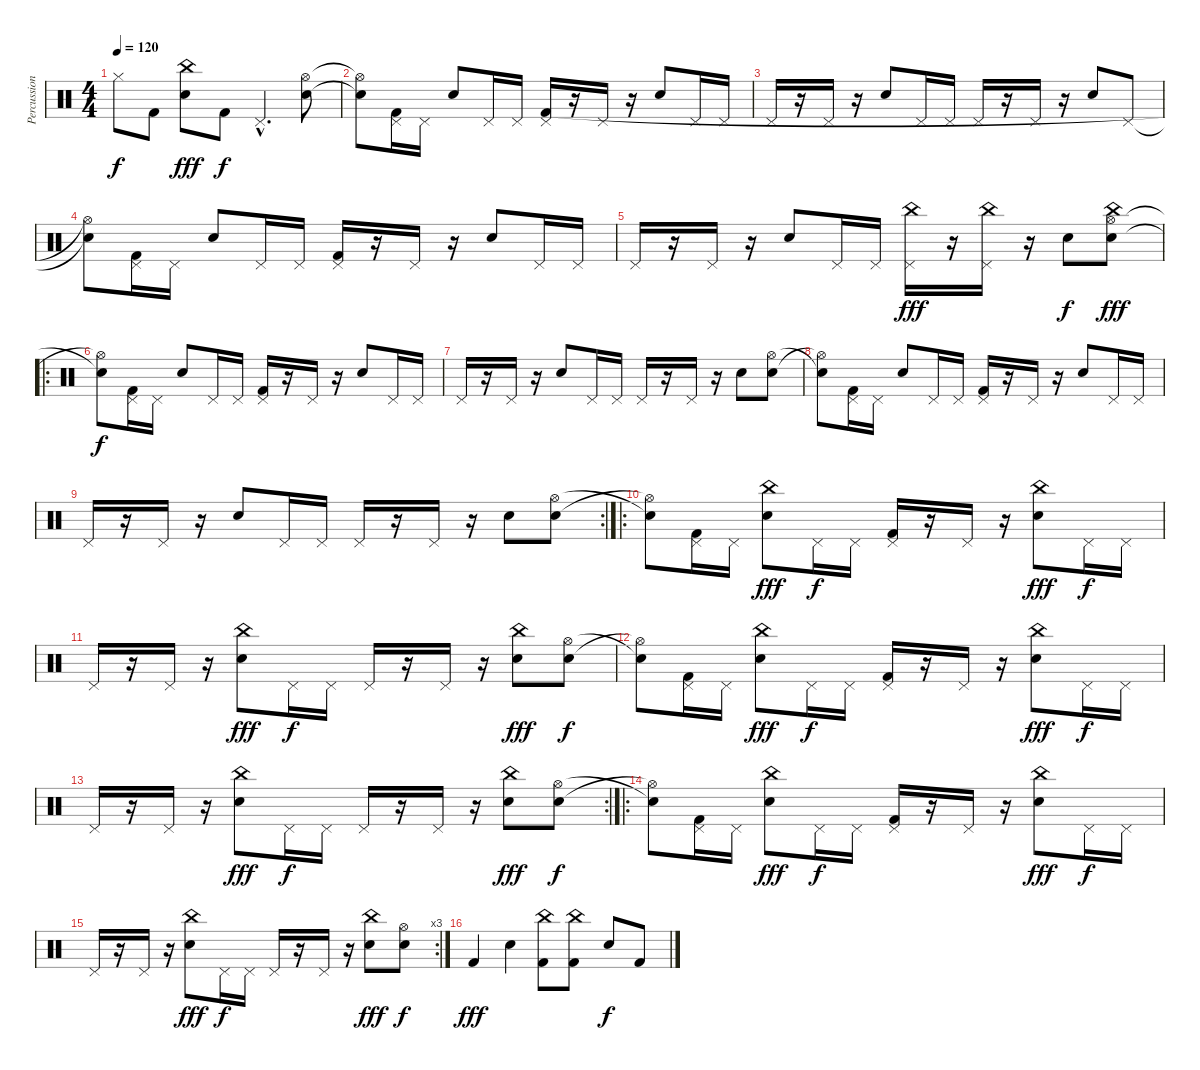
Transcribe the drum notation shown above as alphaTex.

\track ("Percussion" "Percussion") {instrument percussion}
\staff {score}
\articulation defaults
\ts (4 4)
\tempo 120
\clef neutral
\ks c "Hi-Hat (closed)".8{dy f} "Kick (hit) 2".8
("Snare (hit) 2" "China (hit)").8{dy fff} "Kick (hit) 2".8{dy f} "Pedal Hi-Hat (hit)"{hac}.4{d} ("Electric Snare (hit)" "Hi-Hat (open)").8 |
("Electric Snare (hit)"{t} "Hi-Hat (open)"{t}).8 ("Pedal Hi-Hat (hit)" "Kick (hit) 2").16 "Pedal Hi-Hat (hit)".16 "Snare (hit) 2".8 "Pedal Hi-Hat (hit)".16 "Pedal Hi-Hat (hit)".16 ("Pedal Hi-Hat (hit)" "Kick (hit) 2").16 r.16 "Pedal Hi-Hat (hit)".16 r.16 "Snare (hit) 2".8 "Pedal Hi-Hat (hit)".16 "Pedal Hi-Hat (hit)".16 |
"Pedal Hi-Hat (hit)".16 r.16 "Pedal Hi-Hat (hit)".16 r.16 "Snare (hit) 2".8 "Pedal Hi-Hat (hit)".16 "Pedal Hi-Hat (hit)".16 "Pedal Hi-Hat (hit)".16 r.16 "Pedal Hi-Hat (hit)".16 r.16 "Snare (hit) 2".8 "Pedal Hi-Hat (hit)".8 |
("Electric Snare (hit)"{t} "Hi-Hat (open)"{t}).8 ("Pedal Hi-Hat (hit)" "Kick (hit) 2").16 "Pedal Hi-Hat (hit)".16 "Snare (hit) 2".8 "Pedal Hi-Hat (hit)".16 "Pedal Hi-Hat (hit)".16 ("Pedal Hi-Hat (hit)" "Kick (hit) 2").16 r.16 "Pedal Hi-Hat (hit)".16 r.16 "Snare (hit) 2".8 "Pedal Hi-Hat (hit)".16 "Pedal Hi-Hat (hit)".16 |
"Pedal Hi-Hat (hit)".16 r.16 "Pedal Hi-Hat (hit)".16 r.16 "Snare (hit) 2".8 "Pedal Hi-Hat (hit)".16 "Pedal Hi-Hat (hit)".16 ("Pedal Hi-Hat (hit)" "China (hit)").16{dy fff} r.16 ("Pedal Hi-Hat (hit)" "China (hit)").16 r.16 "Snare (hit) 2".8{dy f} ("Hi-Hat (open)" "Electric Snare (hit)" "China (hit)").8{dy fff} |
\ro
("Electric Snare (hit)"{t} "Hi-Hat (open)"{t}).8{dy f} ("Pedal Hi-Hat (hit)" "Kick (hit) 2").16 "Pedal Hi-Hat (hit)".16 "Snare (hit) 2".8 "Pedal Hi-Hat (hit)".16 "Pedal Hi-Hat (hit)".16 ("Pedal Hi-Hat (hit)" "Kick (hit) 2").16 r.16 "Pedal Hi-Hat (hit)".16 r.16 "Snare (hit) 2".8 "Pedal Hi-Hat (hit)".16 "Pedal Hi-Hat (hit)".16 |
"Pedal Hi-Hat (hit)".16 r.16 "Pedal Hi-Hat (hit)".16 r.16 "Snare (hit) 2".8 "Pedal Hi-Hat (hit)".16 "Pedal Hi-Hat (hit)".16 "Pedal Hi-Hat (hit)".16 r.16 "Pedal Hi-Hat (hit)".16 r.16 "Snare (hit) 2".8 ("Hi-Hat (open)" "Electric Snare (hit)").8 |
("Electric Snare (hit)"{t} "Hi-Hat (open)"{t}).8 ("Pedal Hi-Hat (hit)" "Kick (hit) 2").16 "Pedal Hi-Hat (hit)".16 "Snare (hit) 2".8 "Pedal Hi-Hat (hit)".16 "Pedal Hi-Hat (hit)".16 ("Pedal Hi-Hat (hit)" "Kick (hit) 2").16 r.16 "Pedal Hi-Hat (hit)".16 r.16 "Snare (hit) 2".8 "Pedal Hi-Hat (hit)".16 "Pedal Hi-Hat (hit)".16 |
\rc 2 "Pedal Hi-Hat (hit)".16
r.16 "Pedal Hi-Hat (hit)".16 r.16 "Snare (hit) 2".8 "Pedal Hi-Hat (hit)".16 "Pedal Hi-Hat (hit)".16 "Pedal Hi-Hat (hit)".16 r.16 "Pedal Hi-Hat (hit)".16 r.16 "Snare (hit) 2".8 ("Hi-Hat (open)" "Electric Snare (hit)").8 |
\ro
("Electric Snare (hit)"{t} "Hi-Hat (open)"{t}).8 ("Pedal Hi-Hat (hit)" "Kick (hit) 2").16 "Pedal Hi-Hat (hit)".16 ("Snare (hit) 2" "China (hit)").8{dy fff} "Pedal Hi-Hat (hit)".16{dy f} "Pedal Hi-Hat (hit)".16 ("Pedal Hi-Hat (hit)" "Kick (hit) 2").16 r.16 "Pedal Hi-Hat (hit)".16 r.16 ("Snare (hit) 2" "China (hit)").8{dy fff} "Pedal Hi-Hat (hit)".16{dy f} "Pedal Hi-Hat (hit)".16 |
"Pedal Hi-Hat (hit)".16 r.16 "Pedal Hi-Hat (hit)".16 r.16 ("Snare (hit) 2" "China (hit)").8{dy fff} "Pedal Hi-Hat (hit)".16{dy f} "Pedal Hi-Hat (hit)".16 "Pedal Hi-Hat (hit)".16 r.16 "Pedal Hi-Hat (hit)".16 r.16 ("Snare (hit) 2" "China (hit)").8{dy fff} ("Hi-Hat (open)" "Electric Snare (hit)").8{dy f} |
("Electric Snare (hit)"{t} "Hi-Hat (open)"{t}).8 ("Pedal Hi-Hat (hit)" "Kick (hit) 2").16 "Pedal Hi-Hat (hit)".16 ("Snare (hit) 2" "China (hit)").8{dy fff} "Pedal Hi-Hat (hit)".16{dy f} "Pedal Hi-Hat (hit)".16 ("Pedal Hi-Hat (hit)" "Kick (hit) 2").16 r.16 "Pedal Hi-Hat (hit)".16 r.16 ("Snare (hit) 2" "China (hit)").8{dy fff} "Pedal Hi-Hat (hit)".16{dy f} "Pedal Hi-Hat (hit)".16 |
\rc 2 "Pedal Hi-Hat (hit)".16
r.16 "Pedal Hi-Hat (hit)".16 r.16 ("Snare (hit) 2" "China (hit)").8{dy fff} "Pedal Hi-Hat (hit)".16{dy f} "Pedal Hi-Hat (hit)".16 "Pedal Hi-Hat (hit)".16 r.16 "Pedal Hi-Hat (hit)".16 r.16 ("Snare (hit) 2" "China (hit)").8{dy fff} ("Hi-Hat (open)" "Electric Snare (hit)").8{dy f} |
\ro
("Electric Snare (hit)"{t} "Hi-Hat (open)"{t}).8 ("Pedal Hi-Hat (hit)" "Kick (hit) 2").16 "Pedal Hi-Hat (hit)".16 ("Snare (hit) 2" "China (hit)").8{dy fff} "Pedal Hi-Hat (hit)".16{dy f} "Pedal Hi-Hat (hit)".16 ("Pedal Hi-Hat (hit)" "Kick (hit) 2").16 r.16 "Pedal Hi-Hat (hit)".16 r.16 ("Snare (hit) 2" "China (hit)").8{dy fff} "Pedal Hi-Hat (hit)".16{dy f} "Pedal Hi-Hat (hit)".16 |
\rc 3 "Pedal Hi-Hat (hit)".16
r.16 "Pedal Hi-Hat (hit)".16 r.16 ("Snare (hit) 2" "China (hit)").8{dy fff} "Pedal Hi-Hat (hit)".16{dy f} "Pedal Hi-Hat (hit)".16 "Pedal Hi-Hat (hit)".16 r.16 "Pedal Hi-Hat (hit)".16 r.16 ("Snare (hit) 2" "China (hit)").8{dy fff} ("Hi-Hat (open)" "Electric Snare (hit)").8{dy f} |
"Kick (hit) 2".4{dy fff} "Snare (hit) 2".4 ("Kick (hit) 2" "China (hit)").8 ("Kick (hit) 2" "China (hit)").8 "Snare (hit) 2".8{dy f} "Kick (hit) 2".8
